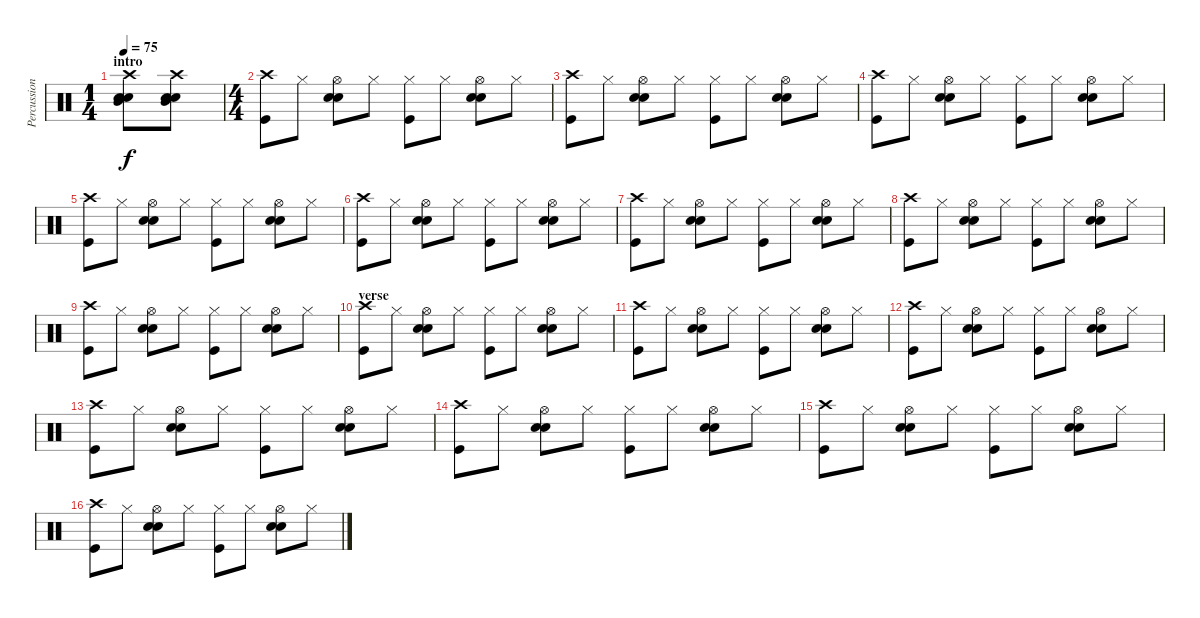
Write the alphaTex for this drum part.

\track ("Percussions" "Percussion") {instrument percussion}
\staff {score}
\articulation defaults
\ts (1 4)
\section ("" "intro")
\tempo 75
\clef neutral
\ks c
("Snare (hit) 2" "Mid Tom (hit)" "Crash high (hit)" "Electric Snare (hit)").8{dy f} ("Snare (hit) 2" "Mid Tom (hit)" "Crash high (hit)" "Electric Snare (hit)").8 |
\ts (4 4)
("Crash high (hit)" "Kick (hit)").8 "Hi-Hat (closed)".8 ("Hi-Hat (open)" "Snare (hit) 2" "Electric Snare (hit)").8 "Hi-Hat (closed)".8 ("Hi-Hat (closed)" "Kick (hit)").8 "Hi-Hat (closed)".8 ("Hi-Hat (open)" "Snare (hit) 2" "Electric Snare (hit)").8 "Hi-Hat (closed)".8 |
("Crash high (hit)" "Kick (hit)").8 "Hi-Hat (closed)".8 ("Hi-Hat (open)" "Snare (hit) 2" "Electric Snare (hit)").8 "Hi-Hat (closed)".8 ("Hi-Hat (closed)" "Kick (hit)").8 "Hi-Hat (closed)".8 ("Hi-Hat (open)" "Snare (hit) 2" "Electric Snare (hit)").8 "Hi-Hat (closed)".8 |
("Crash high (hit)" "Kick (hit)").8 "Hi-Hat (closed)".8 ("Hi-Hat (open)" "Snare (hit) 2" "Electric Snare (hit)").8 "Hi-Hat (closed)".8 ("Hi-Hat (closed)" "Kick (hit)").8 "Hi-Hat (closed)".8 ("Hi-Hat (open)" "Snare (hit) 2" "Electric Snare (hit)").8 "Hi-Hat (closed)".8 |
("Crash high (hit)" "Kick (hit)").8 "Hi-Hat (closed)".8 ("Hi-Hat (open)" "Snare (hit) 2" "Electric Snare (hit)").8 "Hi-Hat (closed)".8 ("Hi-Hat (closed)" "Kick (hit)").8 "Hi-Hat (closed)".8 ("Hi-Hat (open)" "Snare (hit) 2" "Electric Snare (hit)").8 "Hi-Hat (closed)".8 |
("Crash high (hit)" "Kick (hit)").8 "Hi-Hat (closed)".8 ("Hi-Hat (open)" "Snare (hit) 2" "Electric Snare (hit)").8 "Hi-Hat (closed)".8 ("Hi-Hat (closed)" "Kick (hit)").8 "Hi-Hat (closed)".8 ("Hi-Hat (open)" "Snare (hit) 2" "Electric Snare (hit)").8 "Hi-Hat (closed)".8 |
("Crash high (hit)" "Kick (hit)").8 "Hi-Hat (closed)".8 ("Hi-Hat (open)" "Snare (hit) 2" "Electric Snare (hit)").8 "Hi-Hat (closed)".8 ("Hi-Hat (closed)" "Kick (hit)").8 "Hi-Hat (closed)".8 ("Hi-Hat (open)" "Snare (hit) 2" "Electric Snare (hit)").8 "Hi-Hat (closed)".8 |
("Crash high (hit)" "Kick (hit)").8 "Hi-Hat (closed)".8 ("Hi-Hat (open)" "Snare (hit) 2" "Electric Snare (hit)").8 "Hi-Hat (closed)".8 ("Hi-Hat (closed)" "Kick (hit)").8 "Hi-Hat (closed)".8 ("Hi-Hat (open)" "Snare (hit) 2" "Electric Snare (hit)").8 "Hi-Hat (closed)".8 |
("Crash high (hit)" "Kick (hit)").8 "Hi-Hat (closed)".8 ("Hi-Hat (open)" "Snare (hit) 2" "Electric Snare (hit)").8 "Hi-Hat (closed)".8 ("Hi-Hat (closed)" "Kick (hit)").8 "Hi-Hat (closed)".8 ("Hi-Hat (open)" "Snare (hit) 2" "Electric Snare (hit)").8 "Hi-Hat (closed)".8 |
\section ("" "verse")
("Crash high (hit)" "Kick (hit)").8 "Hi-Hat (closed)".8 ("Hi-Hat (open)" "Snare (hit) 2" "Electric Snare (hit)").8 "Hi-Hat (closed)".8 ("Hi-Hat (closed)" "Kick (hit)").8 "Hi-Hat (closed)".8 ("Hi-Hat (open)" "Snare (hit) 2" "Electric Snare (hit)").8 "Hi-Hat (closed)".8 |
("Crash high (hit)" "Kick (hit)").8 "Hi-Hat (closed)".8 ("Hi-Hat (open)" "Snare (hit) 2" "Electric Snare (hit)").8 "Hi-Hat (closed)".8 ("Hi-Hat (closed)" "Kick (hit)").8 "Hi-Hat (closed)".8 ("Hi-Hat (open)" "Snare (hit) 2" "Electric Snare (hit)").8 "Hi-Hat (closed)".8 |
("Crash high (hit)" "Kick (hit)").8 "Hi-Hat (closed)".8 ("Hi-Hat (open)" "Snare (hit) 2" "Electric Snare (hit)").8 "Hi-Hat (closed)".8 ("Hi-Hat (closed)" "Kick (hit)").8 "Hi-Hat (closed)".8 ("Hi-Hat (open)" "Snare (hit) 2" "Electric Snare (hit)").8 "Hi-Hat (closed)".8 |
("Crash high (hit)" "Kick (hit)").8 "Hi-Hat (closed)".8 ("Hi-Hat (open)" "Snare (hit) 2" "Electric Snare (hit)").8 "Hi-Hat (closed)".8 ("Hi-Hat (closed)" "Kick (hit)").8 "Hi-Hat (closed)".8 ("Hi-Hat (open)" "Snare (hit) 2" "Electric Snare (hit)").8 "Hi-Hat (closed)".8 |
("Crash high (hit)" "Kick (hit)").8 "Hi-Hat (closed)".8 ("Hi-Hat (open)" "Snare (hit) 2" "Electric Snare (hit)").8 "Hi-Hat (closed)".8 ("Hi-Hat (closed)" "Kick (hit)").8 "Hi-Hat (closed)".8 ("Hi-Hat (open)" "Snare (hit) 2" "Electric Snare (hit)").8 "Hi-Hat (closed)".8 |
("Crash high (hit)" "Kick (hit)").8 "Hi-Hat (closed)".8 ("Hi-Hat (open)" "Snare (hit) 2" "Electric Snare (hit)").8 "Hi-Hat (closed)".8 ("Hi-Hat (closed)" "Kick (hit)").8 "Hi-Hat (closed)".8 ("Hi-Hat (open)" "Snare (hit) 2" "Electric Snare (hit)").8 "Hi-Hat (closed)".8 |
("Crash high (hit)" "Kick (hit)").8 "Hi-Hat (closed)".8 ("Hi-Hat (open)" "Snare (hit) 2" "Electric Snare (hit)").8 "Hi-Hat (closed)".8 ("Hi-Hat (closed)" "Kick (hit)").8 "Hi-Hat (closed)".8 ("Hi-Hat (open)" "Snare (hit) 2" "Electric Snare (hit)").8 "Hi-Hat (closed)".8
